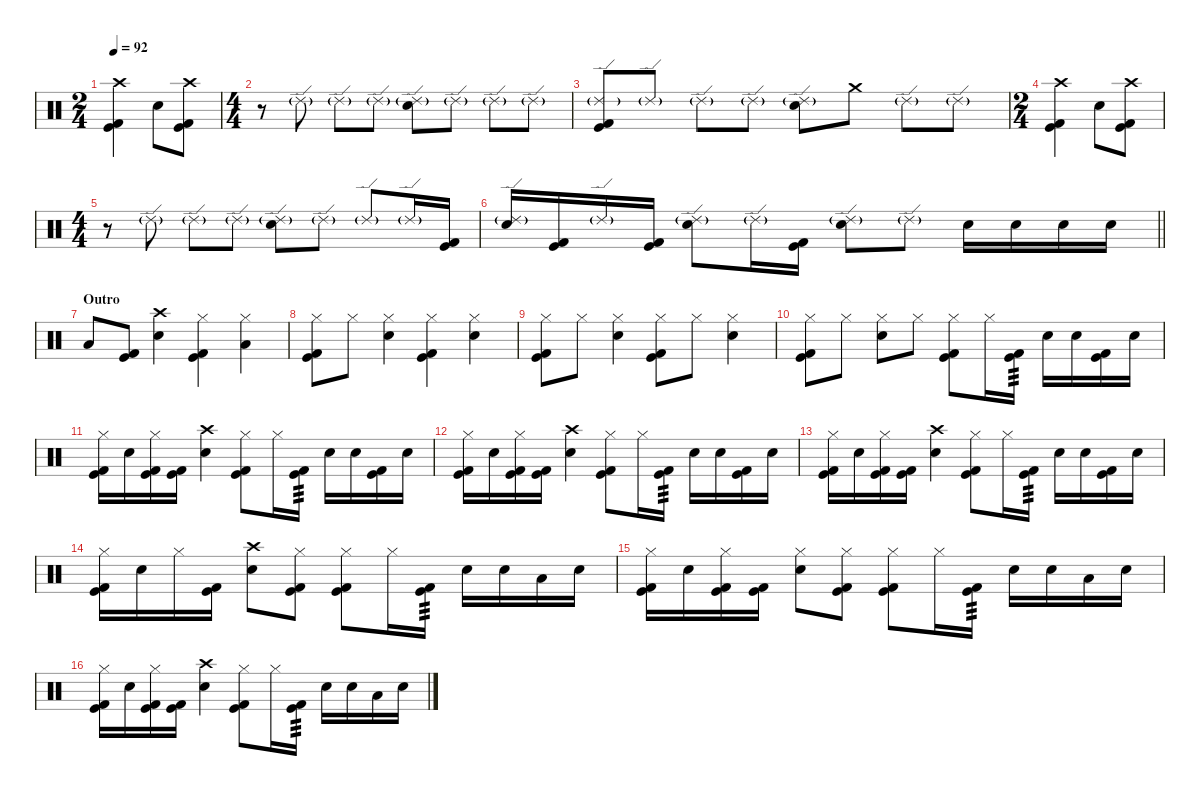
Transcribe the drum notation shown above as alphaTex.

\defaultSystemsLayout 4
\hideDynamics
\bracketExtendMode nobrackets
\singleTrackTrackNamePolicy hidden
\multiTrackTrackNamePolicy hidden
\otherSystemsTrackNameOrientation horizontal
\track ("Lars" "drm.") {instrument percussion}
\staff {score}
\articulation defaults
\ts (2 4)
\beaming (8 2 2 2 2)
\tempo 92
\clef neutral
\ks c
("Crash high (hit)" "Kick (hit)" "Kick (hit) 2").4{dy f beam Down} "Snare (hit) 2".8{beam Down} ("Crash high (hit)" "Kick (hit)" "Kick (hit) 2").8{beam Down} |
\ts (4 4)
\beaming (8 2 2 2 2)
r.8{beam Down} "Ride (edge) 2"{g}.8{dy mf beam Down} "Ride (edge) 2"{g}.8{beam Down} "Ride (edge) 2"{g}.8{beam Down} ("Ride (edge) 2"{g} "Snare (hit) 2").8{dy f beam Down} "Ride (edge) 2"{g}.8{dy mf beam Down} "Ride (edge) 2"{g}.8{beam Down} "Ride (edge) 2"{g}.8{beam Down} |
("Ride (edge) 2"{g} "Kick (hit)" "Kick (hit) 2").8{dy f beam Up} "Ride (edge) 2"{g}.8{dy mf beam Up} "Ride (edge) 2"{g}.8{beam Down} "Ride (edge) 2"{g}.8{beam Down} ("Ride (edge) 2"{g} "Snare (hit) 2").8{dy f beam Down} "Crash medium (hit)".8{beam Down} "Ride (edge) 2"{g}.8{dy mf beam Down} "Ride (edge) 2"{g}.8{beam Down} |
\ts (2 4)
\beaming (8 2 2 2 2)
("Crash high (hit)" "Kick (hit)" "Kick (hit) 2").4{dy f beam Down} "Snare (hit) 2".8{beam Down} ("Crash high (hit)" "Kick (hit)" "Kick (hit) 2").8{beam Down} |
\ts (4 4)
\beaming (8 2 2 2 2)
r.8{beam Down} "Ride (edge) 2"{g}.8{dy mf beam Down} "Ride (edge) 2"{g}.8{beam Down} "Ride (edge) 2"{g}.8{beam Down} ("Ride (edge) 2"{g} "Snare (hit) 2").8{dy f beam Down} "Ride (edge) 2"{g}.8{dy mf beam Down} "Ride (edge) 2"{g}.8{beam Up} "Ride (edge) 2"{g}.16{beam Up} ("Kick (hit)" "Kick (hit) 2").16{dy f beam Up} |
\barLineRight lightlight
("Ride (edge) 2"{g} "Snare (hit) 2").16{beam Up} ("Kick (hit)" "Kick (hit) 2").16{beam Up} "Ride (edge) 2"{g}.16{dy mf beam Up} ("Kick (hit)" "Kick (hit) 2").16{dy f beam Up} ("Ride (edge) 2"{g} "Snare (hit) 2").8{beam Down} "Ride (edge) 2"{g}.16{dy mf beam Down} ("Kick (hit)" "Kick (hit) 2").16{dy f beam Down} ("Ride (edge) 2"{g} "Snare (hit) 2").8{beam Down} "Ride (edge) 2"{g}.8{dy mf beam Down} "Snare (hit) 2".16{dy f beam Down} "Snare (hit) 2".16{beam Down} "Snare (hit) 2".16{beam Down} "Snare (hit) 2".16{beam Down} |
\section ("" "Outro")
"Low Tom (hit)".8{beam Up} ("Kick (hit)" "Kick (hit) 2").8{beam Up} ("Crash high (hit)" "Snare (hit) 2").4{beam Down} ("Hi-Hat (closed)" "Kick (hit)" "Kick (hit) 2").4{beam Down} ("Hi-Hat (closed)" "Low Tom (hit)").4{beam Down} |
("Hi-Hat (closed)" "Kick (hit)" "Kick (hit) 2").8{beam Down} "Hi-Hat (closed)".8{beam Down} ("Hi-Hat (closed)" "Snare (hit) 2").4{beam Down} ("Hi-Hat (closed)" "Kick (hit)" "Kick (hit) 2").4{beam Down} ("Hi-Hat (closed)" "Snare (hit) 2").4{beam Down} |
("Hi-Hat (closed)" "Kick (hit)" "Kick (hit) 2").8{beam Down} "Hi-Hat (closed)".8{beam Down} ("Hi-Hat (closed)" "Snare (hit) 2").4{beam Down} ("Hi-Hat (closed)" "Kick (hit)" "Kick (hit) 2").8{beam Down} "Hi-Hat (closed)".8{beam Down} ("Hi-Hat (closed)" "Snare (hit) 2").4{beam Down} |
("Hi-Hat (closed)" "Kick (hit)" "Kick (hit) 2").8{beam Down} "Hi-Hat (closed)".8{beam Down} ("Hi-Hat (closed)" "Snare (hit) 2").8{beam Down} "Hi-Hat (closed)".8{beam Down} ("Hi-Hat (closed)" "Kick (hit)" "Kick (hit) 2").8{beam Down} "Hi-Hat (closed)".16{beam Down} ("Kick (hit)" "Kick (hit) 2").16{tp 3 beam Down} "Snare (hit) 2".16{beam Down} "Snare (hit) 2".16{beam Down} ("Kick (hit)" "Kick (hit) 2").16{beam Down} "Snare (hit) 2".16{beam Down} |
("Hi-Hat (closed)" "Kick (hit)" "Kick (hit) 2").16{beam Down} "Snare (hit) 2".16{beam Down} ("Hi-Hat (closed)" "Kick (hit)" "Kick (hit) 2").16{beam Down} ("Kick (hit)" "Kick (hit) 2").16{beam Down} ("Crash high (hit)" "Snare (hit) 2").4{beam Down} ("Hi-Hat (closed)" "Kick (hit)" "Kick (hit) 2").8{beam Down} "Hi-Hat (closed)".16{beam Down} ("Kick (hit)" "Kick (hit) 2").16{tp 3 beam Down} "Snare (hit) 2".16{beam Down} "Snare (hit) 2".16{beam Down} ("Kick (hit)" "Kick (hit) 2").16{beam Down} "Snare (hit) 2".16{beam Down} |
("Hi-Hat (closed)" "Kick (hit)" "Kick (hit) 2").16{beam Down} "Snare (hit) 2".16{beam Down} ("Hi-Hat (closed)" "Kick (hit)" "Kick (hit) 2").16{beam Down} ("Kick (hit)" "Kick (hit) 2").16{beam Down} ("Crash high (hit)" "Snare (hit) 2").4{beam Down} ("Hi-Hat (closed)" "Kick (hit)" "Kick (hit) 2").8{beam Down} "Hi-Hat (closed)".16{beam Down} ("Kick (hit)" "Kick (hit) 2").16{tp 3 beam Down} "Snare (hit) 2".16{beam Down} "Snare (hit) 2".16{beam Down} ("Kick (hit)" "Kick (hit) 2").16{beam Down} "Snare (hit) 2".16{beam Down} |
("Hi-Hat (closed)" "Kick (hit)" "Kick (hit) 2").16{beam Down} "Snare (hit) 2".16{beam Down} ("Hi-Hat (closed)" "Kick (hit)" "Kick (hit) 2").16{beam Down} ("Kick (hit)" "Kick (hit) 2").16{beam Down} ("Crash high (hit)" "Snare (hit) 2").4{beam Down} ("Hi-Hat (closed)" "Kick (hit)" "Kick (hit) 2").8{beam Down} "Hi-Hat (closed)".16{beam Down} ("Kick (hit)" "Kick (hit) 2").16{tp 3 beam Down} "Snare (hit) 2".16{beam Down} "Snare (hit) 2".16{beam Down} ("Kick (hit)" "Kick (hit) 2").16{beam Down} "Snare (hit) 2".16{beam Down} |
("Hi-Hat (closed)" "Kick (hit)" "Kick (hit) 2").16{beam Down} "Snare (hit) 2".16{beam Down} "Hi-Hat (closed)".16{beam Down} ("Kick (hit)" "Kick (hit) 2").16{beam Down} ("Crash high (hit)" "Snare (hit) 2").8{beam Down} ("Hi-Hat (closed)" "Kick (hit)" "Kick (hit) 2").8{beam Down} ("Hi-Hat (closed)" "Kick (hit)" "Kick (hit) 2").8{beam Down} "Hi-Hat (closed)".16{beam Down} ("Kick (hit)" "Kick (hit) 2").16{tp 3 beam Down} "Snare (hit) 2".16{beam Down} "Snare (hit) 2".16{beam Down} "Low Floor Tom (hit)".16{beam Down} "Snare (hit) 2".16{beam Down} |
("Hi-Hat (closed)" "Kick (hit)" "Kick (hit) 2").16{beam Down} "Snare (hit) 2".16{beam Down} ("Hi-Hat (closed)" "Kick (hit)" "Kick (hit) 2").16{beam Down} ("Kick (hit)" "Kick (hit) 2").16{beam Down} ("Hi-Hat (closed)" "Snare (hit) 2").8{beam Down} ("Hi-Hat (closed)" "Kick (hit)" "Kick (hit) 2").8{beam Down} ("Hi-Hat (closed)" "Kick (hit)" "Kick (hit) 2").8{beam Down} "Hi-Hat (closed)".16{beam Down} ("Kick (hit)" "Kick (hit) 2").16{tp 3 beam Down} "Snare (hit) 2".16{beam Down} "Snare (hit) 2".16{beam Down} "Low Floor Tom (hit)".16{beam Down} "Snare (hit) 2".16{beam Down} |
("Hi-Hat (closed)" "Kick (hit)" "Kick (hit) 2").16{beam Down} "Snare (hit) 2".16{beam Down} ("Hi-Hat (closed)" "Kick (hit)" "Kick (hit) 2").16{beam Down} ("Kick (hit)" "Kick (hit) 2").16{beam Down} ("Crash high (hit)" "Snare (hit) 2").4{beam Down} ("Hi-Hat (closed)" "Kick (hit)" "Kick (hit) 2").8{beam Down} "Hi-Hat (closed)".16{beam Down} ("Kick (hit)" "Kick (hit) 2").16{tp 3 beam Down} "Snare (hit) 2".16{beam Down} "Snare (hit) 2".16{beam Down} "Low Tom (hit)".16{beam Down} "Snare (hit) 2".16{beam Down}
